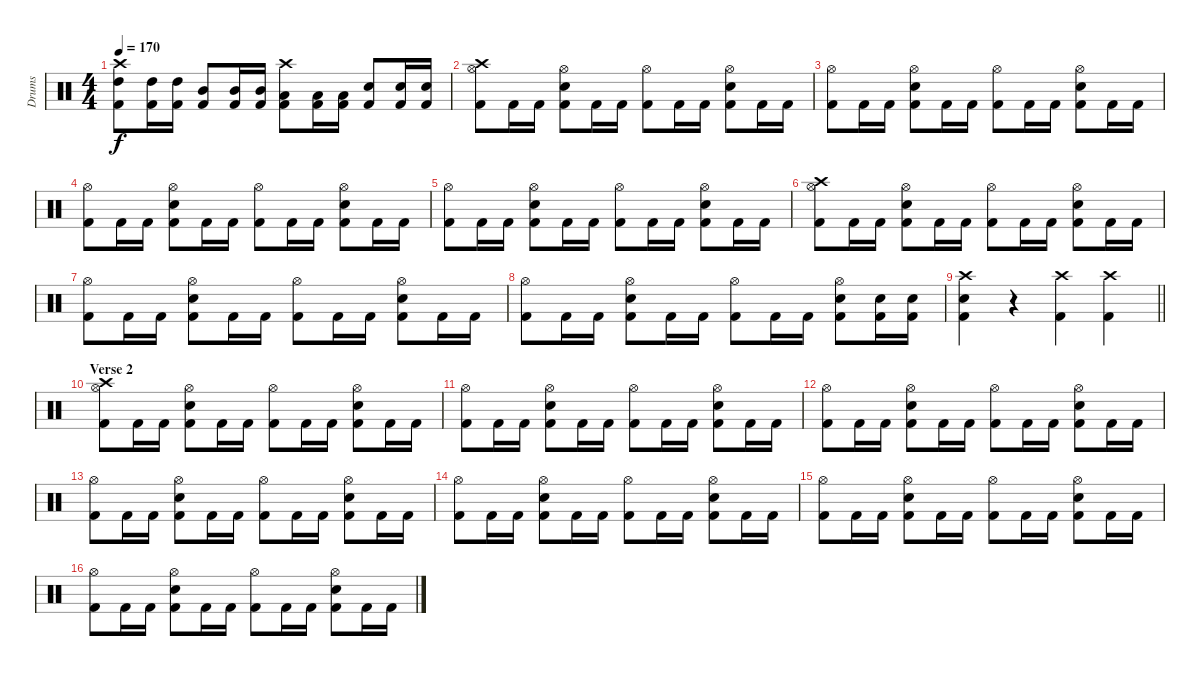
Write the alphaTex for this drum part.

\track ("Drums" "Drums") {instrument percussion}
\staff {score}
\articulation defaults
\ts (4 4)
\tempo 170
\clef neutral
\ks c
("Crash high (hit)" "High Tom (hit)" "Kick (hit) 2").8{dy f} ("High Tom (hit)" "Kick (hit) 2").16 ("High Tom (hit)" "Kick (hit) 2").16 ("Mid Tom (hit)" "Kick (hit) 2").8 ("Mid Tom (hit)" "Kick (hit) 2").16 ("Mid Tom (hit)" "Kick (hit) 2").16 ("Crash high (hit)" "Low Tom (hit)" "Kick (hit) 2").8 ("Low Tom (hit)" "Kick (hit) 2").16 ("Low Tom (hit)" "Kick (hit) 2").16 ("Snare (hit) 2" "Kick (hit) 2").8 ("Snare (hit) 2" "Kick (hit) 2").16 ("Snare (hit) 2" "Kick (hit) 2").16 |
("Crash high (hit)" "Hi-Hat (open)" "Kick (hit) 2").8 "Kick (hit) 2".16 "Kick (hit) 2".16 ("Hi-Hat (open)" "Snare (hit) 2" "Kick (hit) 2").8 "Kick (hit) 2".16 "Kick (hit) 2".16 ("Hi-Hat (open)" "Kick (hit) 2").8 "Kick (hit) 2".16 "Kick (hit) 2".16 ("Hi-Hat (open)" "Snare (hit) 2" "Kick (hit) 2").8 "Kick (hit) 2".16 "Kick (hit) 2".16 |
("Hi-Hat (open)" "Kick (hit) 2").8 "Kick (hit) 2".16 "Kick (hit) 2".16 ("Hi-Hat (open)" "Snare (hit) 2" "Kick (hit) 2").8 "Kick (hit) 2".16 "Kick (hit) 2".16 ("Hi-Hat (open)" "Kick (hit) 2").8 "Kick (hit) 2".16 "Kick (hit) 2".16 ("Hi-Hat (open)" "Snare (hit) 2" "Kick (hit) 2").8 "Kick (hit) 2".16 "Kick (hit) 2".16 |
("Hi-Hat (open)" "Kick (hit) 2").8 "Kick (hit) 2".16 "Kick (hit) 2".16 ("Hi-Hat (open)" "Snare (hit) 2" "Kick (hit) 2").8 "Kick (hit) 2".16 "Kick (hit) 2".16 ("Hi-Hat (open)" "Kick (hit) 2").8 "Kick (hit) 2".16 "Kick (hit) 2".16 ("Hi-Hat (open)" "Snare (hit) 2" "Kick (hit) 2").8 "Kick (hit) 2".16 "Kick (hit) 2".16 |
("Hi-Hat (open)" "Kick (hit) 2").8 "Kick (hit) 2".16 "Kick (hit) 2".16 ("Hi-Hat (open)" "Snare (hit) 2" "Kick (hit) 2").8 "Kick (hit) 2".16 "Kick (hit) 2".16 ("Hi-Hat (open)" "Kick (hit) 2").8 "Kick (hit) 2".16 "Kick (hit) 2".16 ("Hi-Hat (open)" "Snare (hit) 2" "Kick (hit) 2").8 "Kick (hit) 2".16 "Kick (hit) 2".16 |
("Crash high (hit)" "Hi-Hat (open)" "Kick (hit) 2").8 "Kick (hit) 2".16 "Kick (hit) 2".16 ("Hi-Hat (open)" "Snare (hit) 2" "Kick (hit) 2").8 "Kick (hit) 2".16 "Kick (hit) 2".16 ("Hi-Hat (open)" "Kick (hit) 2").8 "Kick (hit) 2".16 "Kick (hit) 2".16 ("Hi-Hat (open)" "Snare (hit) 2" "Kick (hit) 2").8 "Kick (hit) 2".16 "Kick (hit) 2".16 |
("Hi-Hat (open)" "Kick (hit) 2").8 "Kick (hit) 2".16 "Kick (hit) 2".16 ("Hi-Hat (open)" "Snare (hit) 2" "Kick (hit) 2").8 "Kick (hit) 2".16 "Kick (hit) 2".16 ("Hi-Hat (open)" "Kick (hit) 2").8 "Kick (hit) 2".16 "Kick (hit) 2".16 ("Hi-Hat (open)" "Snare (hit) 2" "Kick (hit) 2").8 "Kick (hit) 2".16 "Kick (hit) 2".16 |
("Hi-Hat (open)" "Kick (hit) 2").8 "Kick (hit) 2".16 "Kick (hit) 2".16 ("Hi-Hat (open)" "Snare (hit) 2" "Kick (hit) 2").8 "Kick (hit) 2".16 "Kick (hit) 2".16 ("Hi-Hat (open)" "Kick (hit) 2").8 "Kick (hit) 2".16 "Kick (hit) 2".16 ("Hi-Hat (open)" "Snare (hit) 2" "Kick (hit) 2").8 ("Snare (hit) 2" "Kick (hit) 2").16 ("Snare (hit) 2" "Kick (hit) 2").16 |
\barLineRight lightlight
("Crash high (hit)" "Snare (hit) 2" "Kick (hit) 2").4 r.4 ("Crash high (hit)" "Kick (hit) 2").4 ("Crash high (hit)" "Kick (hit) 2").4 |
\section ("" "Verse 2")
("Crash high (hit)" "Hi-Hat (open)" "Kick (hit) 2").8 "Kick (hit) 2".16 "Kick (hit) 2".16 ("Hi-Hat (open)" "Snare (hit) 2" "Kick (hit) 2").8 "Kick (hit) 2".16 "Kick (hit) 2".16 ("Hi-Hat (open)" "Kick (hit) 2").8 "Kick (hit) 2".16 "Kick (hit) 2".16 ("Hi-Hat (open)" "Snare (hit) 2" "Kick (hit) 2").8 "Kick (hit) 2".16 "Kick (hit) 2".16 |
("Hi-Hat (open)" "Kick (hit) 2").8 "Kick (hit) 2".16 "Kick (hit) 2".16 ("Hi-Hat (open)" "Snare (hit) 2" "Kick (hit) 2").8 "Kick (hit) 2".16 "Kick (hit) 2".16 ("Hi-Hat (open)" "Kick (hit) 2").8 "Kick (hit) 2".16 "Kick (hit) 2".16 ("Hi-Hat (open)" "Snare (hit) 2" "Kick (hit) 2").8 "Kick (hit) 2".16 "Kick (hit) 2".16 |
("Hi-Hat (open)" "Kick (hit) 2").8 "Kick (hit) 2".16 "Kick (hit) 2".16 ("Hi-Hat (open)" "Snare (hit) 2" "Kick (hit) 2").8 "Kick (hit) 2".16 "Kick (hit) 2".16 ("Hi-Hat (open)" "Kick (hit) 2").8 "Kick (hit) 2".16 "Kick (hit) 2".16 ("Hi-Hat (open)" "Snare (hit) 2" "Kick (hit) 2").8 "Kick (hit) 2".16 "Kick (hit) 2".16 |
("Hi-Hat (open)" "Kick (hit) 2").8 "Kick (hit) 2".16 "Kick (hit) 2".16 ("Hi-Hat (open)" "Snare (hit) 2" "Kick (hit) 2").8 "Kick (hit) 2".16 "Kick (hit) 2".16 ("Hi-Hat (open)" "Kick (hit) 2").8 "Kick (hit) 2".16 "Kick (hit) 2".16 ("Hi-Hat (open)" "Snare (hit) 2" "Kick (hit) 2").8 "Kick (hit) 2".16 "Kick (hit) 2".16 |
("Hi-Hat (open)" "Kick (hit) 2").8 "Kick (hit) 2".16 "Kick (hit) 2".16 ("Hi-Hat (open)" "Snare (hit) 2" "Kick (hit) 2").8 "Kick (hit) 2".16 "Kick (hit) 2".16 ("Hi-Hat (open)" "Kick (hit) 2").8 "Kick (hit) 2".16 "Kick (hit) 2".16 ("Hi-Hat (open)" "Snare (hit) 2" "Kick (hit) 2").8 "Kick (hit) 2".16 "Kick (hit) 2".16 |
("Hi-Hat (open)" "Kick (hit) 2").8 "Kick (hit) 2".16 "Kick (hit) 2".16 ("Hi-Hat (open)" "Snare (hit) 2" "Kick (hit) 2").8 "Kick (hit) 2".16 "Kick (hit) 2".16 ("Hi-Hat (open)" "Kick (hit) 2").8 "Kick (hit) 2".16 "Kick (hit) 2".16 ("Hi-Hat (open)" "Snare (hit) 2" "Kick (hit) 2").8 "Kick (hit) 2".16 "Kick (hit) 2".16 |
("Hi-Hat (open)" "Kick (hit) 2").8 "Kick (hit) 2".16 "Kick (hit) 2".16 ("Hi-Hat (open)" "Snare (hit) 2" "Kick (hit) 2").8 "Kick (hit) 2".16 "Kick (hit) 2".16 ("Hi-Hat (open)" "Kick (hit) 2").8 "Kick (hit) 2".16 "Kick (hit) 2".16 ("Hi-Hat (open)" "Snare (hit) 2" "Kick (hit) 2").8 "Kick (hit) 2".16 "Kick (hit) 2".16
